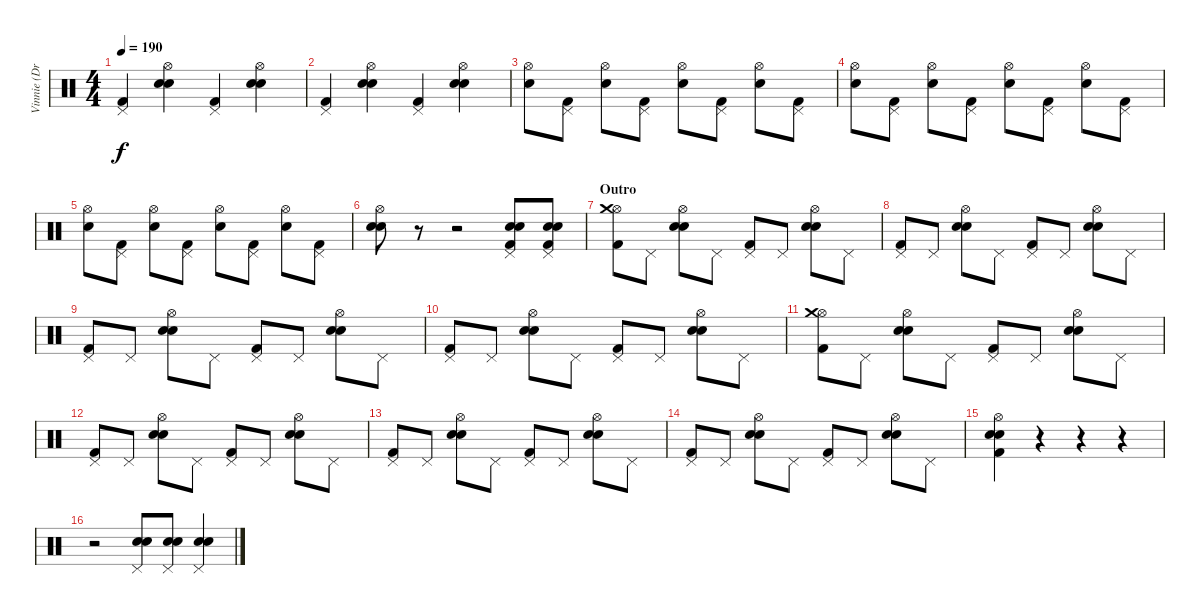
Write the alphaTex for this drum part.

\track ("Vinnie (Drums)" "Vinnie (Dr") {instrument percussion}
\staff {score}
\articulation defaults
\ts (4 4)
\tempo 190
\clef neutral
\ks c
("Kick (hit) 2" "Pedal Hi-Hat (hit)").4{dy f} ("Snare (hit) 2" "Electric Snare (hit)" "Hi-Hat (open)").4 ("Kick (hit) 2" "Pedal Hi-Hat (hit)").4 ("Snare (hit) 2" "Electric Snare (hit)" "Hi-Hat (open)").4 |
("Kick (hit) 2" "Pedal Hi-Hat (hit)").4 ("Snare (hit) 2" "Electric Snare (hit)" "Hi-Hat (open)").4 ("Kick (hit) 2" "Pedal Hi-Hat (hit)").4 ("Snare (hit) 2" "Electric Snare (hit)" "Hi-Hat (open)").4 |
("Snare (hit) 2" "Hi-Hat (open)").8 ("Kick (hit) 2" "Pedal Hi-Hat (hit)").8 ("Snare (hit) 2" "Hi-Hat (open)").8 ("Kick (hit) 2" "Pedal Hi-Hat (hit)").8 ("Snare (hit) 2" "Hi-Hat (open)").8 ("Kick (hit) 2" "Pedal Hi-Hat (hit)").8 ("Snare (hit) 2" "Hi-Hat (open)").8 ("Kick (hit) 2" "Pedal Hi-Hat (hit)").8 |
("Snare (hit) 2" "Hi-Hat (open)").8 ("Kick (hit) 2" "Pedal Hi-Hat (hit)").8 ("Snare (hit) 2" "Hi-Hat (open)").8 ("Kick (hit) 2" "Pedal Hi-Hat (hit)").8 ("Snare (hit) 2" "Hi-Hat (open)").8 ("Kick (hit) 2" "Pedal Hi-Hat (hit)").8 ("Snare (hit) 2" "Hi-Hat (open)").8 ("Kick (hit) 2" "Pedal Hi-Hat (hit)").8 |
("Snare (hit) 2" "Hi-Hat (open)").8 ("Kick (hit) 2" "Pedal Hi-Hat (hit)").8 ("Snare (hit) 2" "Hi-Hat (open)").8 ("Kick (hit) 2" "Pedal Hi-Hat (hit)").8 ("Snare (hit) 2" "Hi-Hat (open)").8 ("Kick (hit) 2" "Pedal Hi-Hat (hit)").8 ("Snare (hit) 2" "Hi-Hat (open)").8 ("Kick (hit) 2" "Pedal Hi-Hat (hit)").8 |
("Snare (hit) 2" "Electric Snare (hit)" "Hi-Hat (open)").8 r.8 r.2 ("Kick (hit) 2" "Pedal Hi-Hat (hit)" "Electric Snare (hit)" "Snare (hit) 2").8 ("Kick (hit) 2" "Pedal Hi-Hat (hit)" "Electric Snare (hit)" "Snare (hit) 2").8 |
\section ("" "Outro")
("Kick (hit) 2" "Hi-Hat (open)" "Crash medium (hit)").8 "Pedal Hi-Hat (hit)".8 ("Snare (hit) 2" "Electric Snare (hit)" "Hi-Hat (open)").8 "Pedal Hi-Hat (hit)".8 ("Kick (hit) 2" "Pedal Hi-Hat (hit)").8 "Pedal Hi-Hat (hit)".8 ("Snare (hit) 2" "Electric Snare (hit)" "Hi-Hat (open)").8 "Pedal Hi-Hat (hit)".8 |
("Kick (hit) 2" "Pedal Hi-Hat (hit)").8 "Pedal Hi-Hat (hit)".8 ("Snare (hit) 2" "Electric Snare (hit)" "Hi-Hat (open)").8 "Pedal Hi-Hat (hit)".8 ("Kick (hit) 2" "Pedal Hi-Hat (hit)").8 "Pedal Hi-Hat (hit)".8 ("Snare (hit) 2" "Electric Snare (hit)" "Hi-Hat (open)").8 "Pedal Hi-Hat (hit)".8 |
("Kick (hit) 2" "Pedal Hi-Hat (hit)").8 "Pedal Hi-Hat (hit)".8 ("Snare (hit) 2" "Electric Snare (hit)" "Hi-Hat (open)").8 "Pedal Hi-Hat (hit)".8 ("Kick (hit) 2" "Pedal Hi-Hat (hit)").8 "Pedal Hi-Hat (hit)".8 ("Snare (hit) 2" "Electric Snare (hit)" "Hi-Hat (open)").8 "Pedal Hi-Hat (hit)".8 |
("Kick (hit) 2" "Pedal Hi-Hat (hit)").8 "Pedal Hi-Hat (hit)".8 ("Snare (hit) 2" "Electric Snare (hit)" "Hi-Hat (open)").8 "Pedal Hi-Hat (hit)".8 ("Kick (hit) 2" "Pedal Hi-Hat (hit)").8 "Pedal Hi-Hat (hit)".8 ("Snare (hit) 2" "Electric Snare (hit)" "Hi-Hat (open)").8 "Pedal Hi-Hat (hit)".8 |
("Kick (hit) 2" "Hi-Hat (open)" "Crash medium (hit)").8 "Pedal Hi-Hat (hit)".8 ("Snare (hit) 2" "Electric Snare (hit)" "Hi-Hat (open)").8 "Pedal Hi-Hat (hit)".8 ("Kick (hit) 2" "Pedal Hi-Hat (hit)").8 "Pedal Hi-Hat (hit)".8 ("Snare (hit) 2" "Electric Snare (hit)" "Hi-Hat (open)").8 "Pedal Hi-Hat (hit)".8 |
("Kick (hit) 2" "Pedal Hi-Hat (hit)").8 "Pedal Hi-Hat (hit)".8 ("Snare (hit) 2" "Electric Snare (hit)" "Hi-Hat (open)").8 "Pedal Hi-Hat (hit)".8 ("Kick (hit) 2" "Pedal Hi-Hat (hit)").8 "Pedal Hi-Hat (hit)".8 ("Snare (hit) 2" "Electric Snare (hit)" "Hi-Hat (open)").8 "Pedal Hi-Hat (hit)".8 |
("Kick (hit) 2" "Pedal Hi-Hat (hit)").8 "Pedal Hi-Hat (hit)".8 ("Snare (hit) 2" "Electric Snare (hit)" "Hi-Hat (open)").8 "Pedal Hi-Hat (hit)".8 ("Kick (hit) 2" "Pedal Hi-Hat (hit)").8 "Pedal Hi-Hat (hit)".8 ("Snare (hit) 2" "Electric Snare (hit)" "Hi-Hat (open)").8 "Pedal Hi-Hat (hit)".8 |
("Kick (hit) 2" "Pedal Hi-Hat (hit)").8 "Pedal Hi-Hat (hit)".8 ("Snare (hit) 2" "Electric Snare (hit)" "Hi-Hat (open)").8 "Pedal Hi-Hat (hit)".8 ("Kick (hit) 2" "Pedal Hi-Hat (hit)").8 "Pedal Hi-Hat (hit)".8 ("Snare (hit) 2" "Electric Snare (hit)" "Hi-Hat (open)").8 "Pedal Hi-Hat (hit)".8 |
("Kick (hit) 2" "Hi-Hat (open)" "Snare (hit) 2" "Electric Snare (hit)").4 r.4 r.4 r.4 |
r.2 ("Pedal Hi-Hat (hit)" "Electric Snare (hit)" "Snare (hit) 2").8 ("Pedal Hi-Hat (hit)" "Electric Snare (hit)" "Snare (hit) 2").8 ("Pedal Hi-Hat (hit)" "Electric Snare (hit)" "Snare (hit) 2").4
